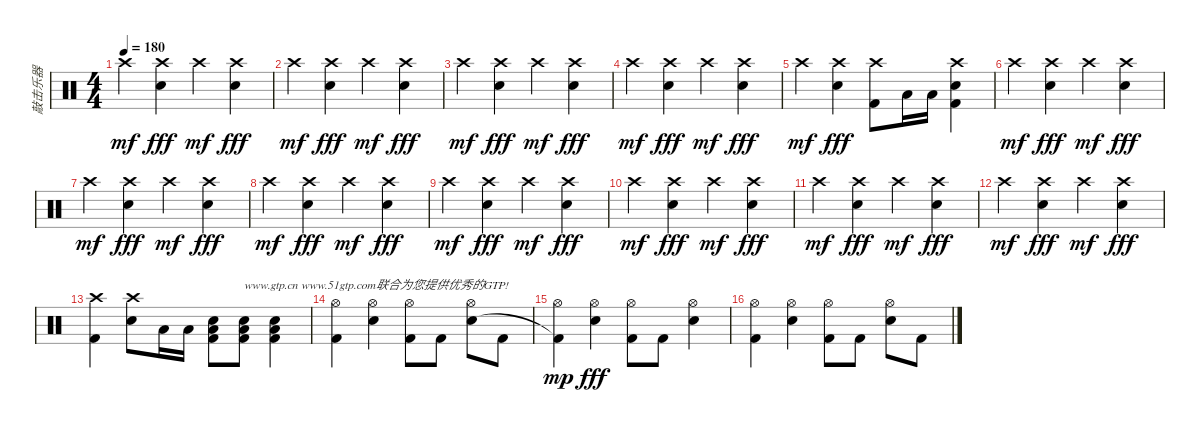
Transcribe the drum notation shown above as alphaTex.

\track ("敲击乐器" "敲击乐器") {instrument percussion}
\staff {score}
\articulation defaults
\ts (4 4)
\tempo 180
\clef neutral
\ks c "Crash high (hit)".4{dy mf}
("Crash high (hit)" "Electric Snare (hit)").4{dy fff} "Crash high (hit)".4{dy mf} ("Crash high (hit)" "Electric Snare (hit)").4{dy fff} |
"Crash high (hit)".4{dy mf} ("Crash high (hit)" "Electric Snare (hit)").4{dy fff} "Crash high (hit)".4{dy mf} ("Crash high (hit)" "Electric Snare (hit)").4{dy fff} |
"Crash high (hit)".4{dy mf} ("Crash high (hit)" "Electric Snare (hit)").4{dy fff} "Crash high (hit)".4{dy mf} ("Crash high (hit)" "Electric Snare (hit)").4{dy fff} |
"Crash high (hit)".4{dy mf} ("Crash high (hit)" "Electric Snare (hit)").4{dy fff} "Crash high (hit)".4{dy mf} ("Crash high (hit)" "Electric Snare (hit)").4{dy fff} |
"Crash high (hit)".4{dy mf} ("Crash high (hit)" "Electric Snare (hit)").4{dy fff} ("Crash high (hit)" "Kick (hit) 2").8 "Low Tom (hit)".16 "Low Tom (hit)".16 ("Crash high (hit)" "Electric Snare (hit)" "Kick (hit) 2").4 |
"Crash high (hit)".4{dy mf} ("Crash high (hit)" "Electric Snare (hit)").4{dy fff} "Crash high (hit)".4{dy mf} ("Crash high (hit)" "Electric Snare (hit)").4{dy fff} |
"Crash high (hit)".4{dy mf} ("Crash high (hit)" "Electric Snare (hit)").4{dy fff} "Crash high (hit)".4{dy mf} ("Crash high (hit)" "Electric Snare (hit)").4{dy fff} |
"Crash high (hit)".4{dy mf} ("Crash high (hit)" "Electric Snare (hit)").4{dy fff} "Crash high (hit)".4{dy mf} ("Crash high (hit)" "Electric Snare (hit)").4{dy fff} |
"Crash high (hit)".4{dy mf} ("Crash high (hit)" "Electric Snare (hit)").4{dy fff} "Crash high (hit)".4{dy mf} ("Crash high (hit)" "Electric Snare (hit)").4{dy fff} |
"Crash high (hit)".4{dy mf} ("Crash high (hit)" "Electric Snare (hit)").4{dy fff} "Crash high (hit)".4{dy mf} ("Crash high (hit)" "Electric Snare (hit)").4{dy fff} |
"Crash high (hit)".4{dy mf} ("Crash high (hit)" "Electric Snare (hit)").4{dy fff} "Crash high (hit)".4{dy mf} ("Crash high (hit)" "Electric Snare (hit)").4{dy fff} |
"Crash high (hit)".4{dy mf} ("Crash high (hit)" "Electric Snare (hit)").4{dy fff} "Crash high (hit)".4{dy mf} ("Crash high (hit)" "Electric Snare (hit)").4{dy fff} |
("Crash high (hit)" "Kick (hit) 2").4 ("Crash high (hit)" "Electric Snare (hit)").8 "Low Tom (hit)".16 "Low Tom (hit)".16 ("Low Tom (hit)" "Electric Snare (hit)" "Kick (hit) 2").8 ("Low Tom (hit)" "Electric Snare (hit)" "Kick (hit) 2").8{txt "www.gtp.cn www.51gtp.com联合为您提供优秀的GTP!"} ("Low Tom (hit)" "Electric Snare (hit)" "Kick (hit) 2").4 |
("Hi-Hat (open)" "Kick (hit) 2").4 ("Hi-Hat (open)" "Electric Snare (hit)").4 ("Hi-Hat (open)" "Kick (hit) 2").8 "Kick (hit) 2".8 ("Hi-Hat (open)" "Electric Snare (hit)").8 "Kick (hit) 2".8 |
("Hi-Hat (open)" "Kick (hit) 2"{t}).4{dy mp} ("Hi-Hat (open)" "Electric Snare (hit)").4{dy fff} ("Hi-Hat (open)" "Kick (hit) 2").8 "Kick (hit) 2".8 ("Hi-Hat (open)" "Electric Snare (hit)").4 |
("Hi-Hat (open)" "Kick (hit) 2").4 ("Hi-Hat (open)" "Electric Snare (hit)").4 ("Hi-Hat (open)" "Kick (hit) 2").8 "Kick (hit) 2".8 ("Hi-Hat (open)" "Electric Snare (hit)").8 "Kick (hit) 2".8
